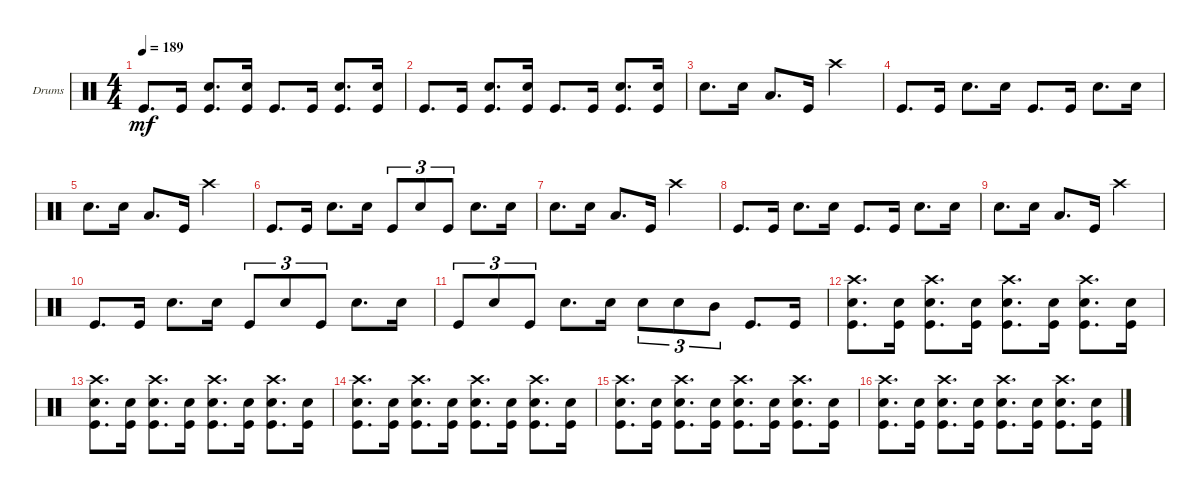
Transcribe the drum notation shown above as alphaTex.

\defaultSystemsLayout 4
\bracketExtendMode groupsimilarinstruments
\firstSystemTrackNameOrientation horizontal
\otherSystemsTrackNameOrientation horizontal
\track ("Drumkit" "Drums") {instrument percussion}
\staff {score}
\articulation defaults
\ts (4 4)
\tempo 189
\clef neutral
\ks c "Kick (hit)".8{d dy mf} "Kick (hit)".16
("Snare (hit) 2" "Kick (hit)").8{d} ("Snare (hit) 2" "Kick (hit)").16 "Kick (hit)".8{d} "Kick (hit)".16 ("Snare (hit) 2" "Kick (hit)").8{d} ("Snare (hit) 2" "Kick (hit)").16 |
\scale
0.333333 "Kick (hit)".8{d} "Kick (hit)".16 ("Snare (hit) 2" "Kick (hit)").8{d} ("Snare (hit) 2" "Kick (hit)").16 "Kick (hit)".8{d} "Kick (hit)".16 ("Snare (hit) 2" "Kick (hit)").8{d} ("Snare (hit) 2" "Kick (hit)").16 |
\scale
0.333333 "Snare (hit) 2".8{d} "Snare (hit) 2".16 "Low Tom (hit)".8{d} "Kick (hit)".16 "Crash high (hit)".2 |
\scale
0.333333 "Kick (hit)".8{d} "Kick (hit)".16 "Snare (hit) 2".8{d} "Snare (hit) 2".16 "Kick (hit)".8{d} "Kick (hit)".16 "Snare (hit) 2".8{d} "Snare (hit) 2".16 |
\scale
0.333333 "Snare (hit) 2".8{d} "Snare (hit) 2".16 "Low Tom (hit)".8{d} "Kick (hit)".16 "Crash high (hit)".2 |
\scale
0.333333 "Kick (hit)".8{d} "Kick (hit)".16 "Snare (hit) 2".8{d} "Snare (hit) 2".16 "Kick (hit)".8{tu (3 2)} "Snare (hit) 2".8{tu (3 2)} "Kick (hit)".8{tu (3 2)} "Snare (hit) 2".8{d} "Snare (hit) 2".16 |
\scale
0.333333 "Snare (hit) 2".8{d} "Snare (hit) 2".16 "Low Tom (hit)".8{d} "Kick (hit)".16 "Crash high (hit)".2 |
\scale
0.333333 "Kick (hit)".8{d} "Kick (hit)".16 "Snare (hit) 2".8{d} "Snare (hit) 2".16 "Kick (hit)".8{d} "Kick (hit)".16 "Snare (hit) 2".8{d} "Snare (hit) 2".16 |
\scale
0.333333 "Snare (hit) 2".8{d} "Snare (hit) 2".16 "Low Tom (hit)".8{d} "Kick (hit)".16 "Crash high (hit)".2 |
\scale
0.333333 "Kick (hit)".8{d} "Kick (hit)".16 "Snare (hit) 2".8{d} "Snare (hit) 2".16 "Kick (hit)".8{tu (3 2)} "Snare (hit) 2".8{tu (3 2)} "Kick (hit)".8{tu (3 2)} "Snare (hit) 2".8{d} "Snare (hit) 2".16 |
\scale
0.333333 "Kick (hit)".8{tu (3 2)} "Snare (hit) 2".8{tu (3 2)} "Kick (hit)".8{tu (3 2)} "Snare (hit) 2".8{d} "Snare (hit) 2".16 "Snare (hit) 2".8{tu (3 2)} "Snare (hit) 2".8{tu (3 2)} "Mid Tom (hit)".8{tu (3 2)} "Kick (hit)".8{d} "Kick (hit)".16 |
\scale
0.333333 ("Kick (hit)" "Crash high (hit)" "Snare (hit) 2").8{d} ("Snare (hit) 2" "Kick (hit)").16 ("Kick (hit)" "Crash high (hit)" "Snare (hit) 2").8{d} ("Snare (hit) 2" "Kick (hit)").16 ("Kick (hit)" "Crash high (hit)" "Snare (hit) 2").8{d} ("Snare (hit) 2" "Kick (hit)").16 ("Kick (hit)" "Crash high (hit)" "Snare (hit) 2").8{d} ("Snare (hit) 2" "Kick (hit)").16 |
\scale
0.333333 ("Kick (hit)" "Crash high (hit)" "Snare (hit) 2").8{d} ("Snare (hit) 2" "Kick (hit)").16 ("Kick (hit)" "Crash high (hit)" "Snare (hit) 2").8{d} ("Snare (hit) 2" "Kick (hit)").16 ("Kick (hit)" "Crash high (hit)" "Snare (hit) 2").8{d} ("Snare (hit) 2" "Kick (hit)").16 ("Kick (hit)" "Crash high (hit)" "Snare (hit) 2").8{d} ("Snare (hit) 2" "Kick (hit)").16 |
\scale
0.333333 ("Kick (hit)" "Crash high (hit)" "Snare (hit) 2").8{d} ("Snare (hit) 2" "Kick (hit)").16 ("Kick (hit)" "Crash high (hit)" "Snare (hit) 2").8{d} ("Snare (hit) 2" "Kick (hit)").16 ("Kick (hit)" "Crash high (hit)" "Snare (hit) 2").8{d} ("Snare (hit) 2" "Kick (hit)").16 ("Kick (hit)" "Crash high (hit)" "Snare (hit) 2").8{d} ("Snare (hit) 2" "Kick (hit)").16 |
\scale
0.333333 ("Kick (hit)" "Crash high (hit)" "Snare (hit) 2").8{d} ("Snare (hit) 2" "Kick (hit)").16 ("Kick (hit)" "Crash high (hit)" "Snare (hit) 2").8{d} ("Snare (hit) 2" "Kick (hit)").16 ("Kick (hit)" "Crash high (hit)" "Snare (hit) 2").8{d} ("Snare (hit) 2" "Kick (hit)").16 ("Kick (hit)" "Crash high (hit)" "Snare (hit) 2").8{d} ("Snare (hit) 2" "Kick (hit)").16 |
\scale
0.333333 ("Kick (hit)" "Crash high (hit)" "Snare (hit) 2").8{d} ("Snare (hit) 2" "Kick (hit)").16 ("Kick (hit)" "Crash high (hit)" "Snare (hit) 2").8{d} ("Snare (hit) 2" "Kick (hit)").16 ("Kick (hit)" "Crash high (hit)" "Snare (hit) 2").8{d} ("Snare (hit) 2" "Kick (hit)").16 ("Kick (hit)" "Crash high (hit)" "Snare (hit) 2").8{d} ("Snare (hit) 2" "Kick (hit)").16
